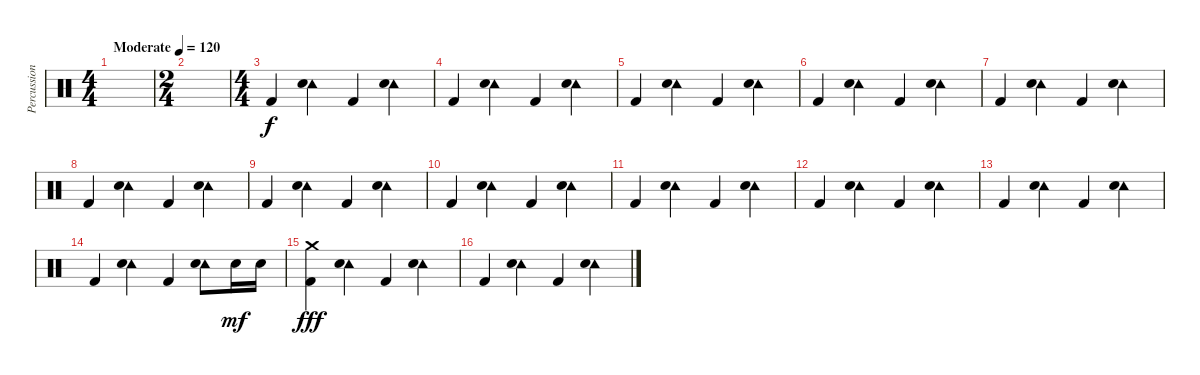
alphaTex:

\track ("Percussion" "Percussion") {instrument percussion}
\staff {score}
\articulation defaults
\ts (4 4)
\tempo (120 "Moderate")
\clef neutral
\ks c
|
\ts (2 4)
|
\ts (4 4)
"Kick (hit) 2".4 ("Tambourine (hit)" "Electric Snare (hit)").4 "Kick (hit) 2".4 ("Tambourine (hit)" "Electric Snare (hit)").4 |
"Kick (hit) 2".4 ("Tambourine (hit)" "Electric Snare (hit)").4 "Kick (hit) 2".4 ("Tambourine (hit)" "Electric Snare (hit)").4 |
"Kick (hit) 2".4 ("Tambourine (hit)" "Electric Snare (hit)").4 "Kick (hit) 2".4 ("Tambourine (hit)" "Electric Snare (hit)").4 |
"Kick (hit) 2".4 ("Tambourine (hit)" "Electric Snare (hit)").4 "Kick (hit) 2".4 ("Tambourine (hit)" "Electric Snare (hit)").4 |
"Kick (hit) 2".4 ("Tambourine (hit)" "Electric Snare (hit)").4 "Kick (hit) 2".4 ("Tambourine (hit)" "Electric Snare (hit)").4 |
"Kick (hit) 2".4 ("Tambourine (hit)" "Electric Snare (hit)").4 "Kick (hit) 2".4 ("Tambourine (hit)" "Electric Snare (hit)").4 |
"Kick (hit) 2".4 ("Tambourine (hit)" "Electric Snare (hit)").4 "Kick (hit) 2".4 ("Tambourine (hit)" "Electric Snare (hit)").4 |
"Kick (hit) 2".4 ("Tambourine (hit)" "Electric Snare (hit)").4 "Kick (hit) 2".4 ("Tambourine (hit)" "Electric Snare (hit)").4 |
"Kick (hit) 2".4 ("Tambourine (hit)" "Electric Snare (hit)").4 "Kick (hit) 2".4 ("Tambourine (hit)" "Electric Snare (hit)").4 |
"Kick (hit) 2".4 ("Tambourine (hit)" "Electric Snare (hit)").4 "Kick (hit) 2".4 ("Tambourine (hit)" "Electric Snare (hit)").4 |
"Kick (hit) 2".4 ("Tambourine (hit)" "Electric Snare (hit)").4 "Kick (hit) 2".4 ("Tambourine (hit)" "Electric Snare (hit)").4 |
"Kick (hit) 2".4 ("Tambourine (hit)" "Electric Snare (hit)").4 "Kick (hit) 2".4 ("Tambourine (hit)" "Electric Snare (hit)").8 "Electric Snare (hit)".16{dy mf} "Electric Snare (hit)".16 |
("Crash medium (hit)" "Kick (hit) 2").4{dy fff} ("Tambourine (hit)" "Electric Snare (hit)").4 "Kick (hit) 2".4 ("Tambourine (hit)" "Electric Snare (hit)").4 |
"Kick (hit) 2".4 ("Tambourine (hit)" "Electric Snare (hit)").4 "Kick (hit) 2".4 ("Tambourine (hit)" "Electric Snare (hit)").4
